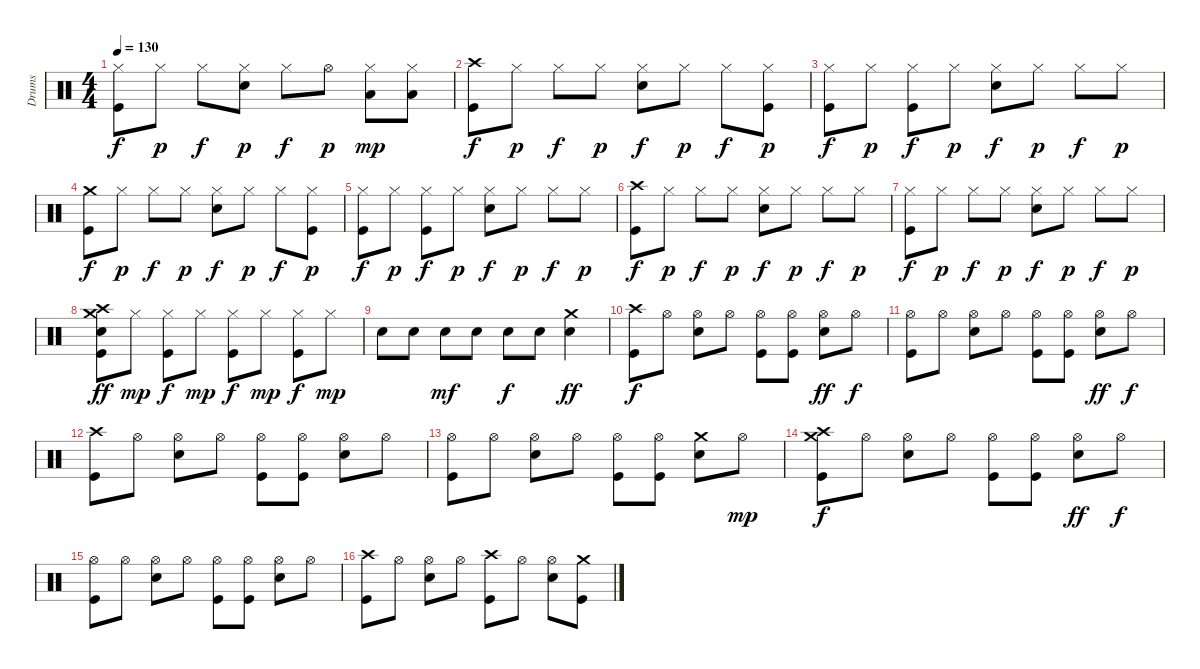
\track ("Drums" "Drums") {instrument percussion}
\staff {score}
\articulation defaults
\ts (4 4)
\tempo 130
\clef neutral
\ks c
("Hi-Hat (closed)" "Kick (hit)").8{dy f} "Hi-Hat (closed)".8{dy p} "Hi-Hat (closed)".8{dy f} ("Hi-Hat (closed)" "Snare (hit) 2").8{dy p} "Hi-Hat (closed)".8{dy f} "Hi-Hat (open)".8{dy p} ("Hi-Hat (closed)" "Low Tom (hit)").8{dy mp} ("Hi-Hat (closed)" "Low Tom (hit)").8 |
("Crash high (hit)" "Kick (hit)").8{dy f} "Hi-Hat (closed)".8{dy p} "Hi-Hat (closed)".8{dy f} "Hi-Hat (closed)".8{dy p} ("Hi-Hat (closed)" "Snare (hit) 2").8{dy f} "Hi-Hat (closed)".8{dy p} "Hi-Hat (closed)".8{dy f} ("Hi-Hat (closed)" "Kick (hit)").8{dy p} |
("Hi-Hat (closed)" "Kick (hit)").8{dy f} "Hi-Hat (closed)".8{dy p} ("Hi-Hat (closed)" "Kick (hit)").8{dy f} "Hi-Hat (closed)".8{dy p} ("Hi-Hat (closed)" "Snare (hit) 2").8{dy f} "Hi-Hat (closed)".8{dy p} "Hi-Hat (closed)".8{dy f} "Hi-Hat (closed)".8{dy p} |
("Crash medium (hit)" "Kick (hit)").8{dy f} "Hi-Hat (closed)".8{dy p} "Hi-Hat (closed)".8{dy f} "Hi-Hat (closed)".8{dy p} ("Hi-Hat (closed)" "Snare (hit) 2").8{dy f} "Hi-Hat (closed)".8{dy p} "Hi-Hat (closed)".8{dy f} ("Hi-Hat (closed)" "Kick (hit)").8{dy p} |
("Hi-Hat (closed)" "Kick (hit)").8{dy f} "Hi-Hat (closed)".8{dy p} ("Hi-Hat (closed)" "Kick (hit)").8{dy f} "Hi-Hat (closed)".8{dy p} ("Hi-Hat (closed)" "Snare (hit) 2").8{dy f} "Hi-Hat (closed)".8{dy p} "Hi-Hat (closed)".8{dy f} "Hi-Hat (closed)".8{dy p} |
("Crash high (hit)" "Kick (hit)").8{dy f} "Hi-Hat (closed)".8{dy p} "Hi-Hat (closed)".8{dy f} "Hi-Hat (closed)".8{dy p} ("Hi-Hat (closed)" "Snare (hit) 2").8{dy f} "Hi-Hat (closed)".8{dy p} "Hi-Hat (closed)".8{dy f} "Hi-Hat (closed)".8{dy p} |
("Hi-Hat (closed)" "Kick (hit)").8{dy f} "Hi-Hat (closed)".8{dy p} "Hi-Hat (closed)".8{dy f} "Hi-Hat (closed)".8{dy p} ("Hi-Hat (closed)" "Snare (hit) 2").8{dy f} "Hi-Hat (closed)".8{dy p} "Hi-Hat (closed)".8{dy f} "Hi-Hat (closed)".8{dy p} |
("Crash high (hit)" "Crash medium (hit)" "Snare (hit) 2" "Kick (hit)").8{dy ff} "Hi-Hat (closed)".8{dy mp} ("Hi-Hat (closed)" "Kick (hit)").8{dy f} "Hi-Hat (closed)".8{dy mp} ("Hi-Hat (closed)" "Kick (hit)").8{dy f} "Hi-Hat (closed)".8{dy mp} ("Hi-Hat (closed)" "Kick (hit)").8{dy f} "Hi-Hat (closed)".8{dy mp} |
"Snare (hit) 2".8 "Snare (hit) 2".8 "Snare (hit) 2".8{dy mf} "Snare (hit) 2".8 "Snare (hit) 2".8{dy f} "Snare (hit) 2".8 ("Crash medium (hit)" "Snare (hit) 2").4{dy ff} |
("Crash high (hit)" "Kick (hit)").8{dy f} "Hi-Hat (open)".8 ("Hi-Hat (open)" "Snare (hit) 2").8 "Hi-Hat (open)".8 ("Hi-Hat (open)" "Kick (hit)").8 ("Hi-Hat (open)" "Kick (hit)").8 ("Hi-Hat (open)" "Snare (hit) 2").8{dy ff} "Hi-Hat (open)".8{dy f} |
("Hi-Hat (open)" "Kick (hit)").8 "Hi-Hat (open)".8 ("Hi-Hat (open)" "Snare (hit) 2").8 "Hi-Hat (open)".8 ("Hi-Hat (open)" "Kick (hit)").8 ("Hi-Hat (open)" "Kick (hit)").8 ("Hi-Hat (open)" "Snare (hit) 2").8{dy ff} "Hi-Hat (open)".8{dy f} |
("Crash high (hit)" "Kick (hit)").8 "Hi-Hat (open)".8 ("Hi-Hat (open)" "Snare (hit) 2").8 "Hi-Hat (open)".8 ("Hi-Hat (open)" "Kick (hit)").8 ("Hi-Hat (open)" "Kick (hit)").8 ("Hi-Hat (open)" "Snare (hit) 2").8 "Hi-Hat (open)".8 |
("Hi-Hat (open)" "Kick (hit)").8 "Hi-Hat (open)".8 ("Hi-Hat (open)" "Snare (hit) 2").8 "Hi-Hat (open)".8 ("Hi-Hat (open)" "Kick (hit)").8 ("Hi-Hat (open)" "Kick (hit)").8 ("Crash medium (hit)" "Snare (hit) 2").8 "Hi-Hat (open)".8{dy mp} |
("Crash high (hit)" "Crash medium (hit)" "Kick (hit)").8{dy f} "Hi-Hat (open)".8 ("Hi-Hat (open)" "Snare (hit) 2").8 "Hi-Hat (open)".8 ("Hi-Hat (open)" "Kick (hit)").8 ("Hi-Hat (open)" "Kick (hit)").8 ("Hi-Hat (open)" "Snare (hit) 2").8{dy ff} "Hi-Hat (open)".8{dy f} |
("Hi-Hat (open)" "Kick (hit)").8 "Hi-Hat (open)".8 ("Hi-Hat (open)" "Snare (hit) 2").8 "Hi-Hat (open)".8 ("Hi-Hat (open)" "Kick (hit)").8 ("Hi-Hat (open)" "Kick (hit)").8 ("Hi-Hat (open)" "Snare (hit) 2").8 "Hi-Hat (open)".8 |
("Crash high (hit)" "Kick (hit)").8 "Hi-Hat (open)".8 ("Hi-Hat (open)" "Snare (hit) 2").8 "Hi-Hat (open)".8 ("Crash high (hit)" "Kick (hit)").8 "Hi-Hat (open)".8 ("Hi-Hat (open)" "Snare (hit) 2").8 ("Crash medium (hit)" "Kick (hit)").8
